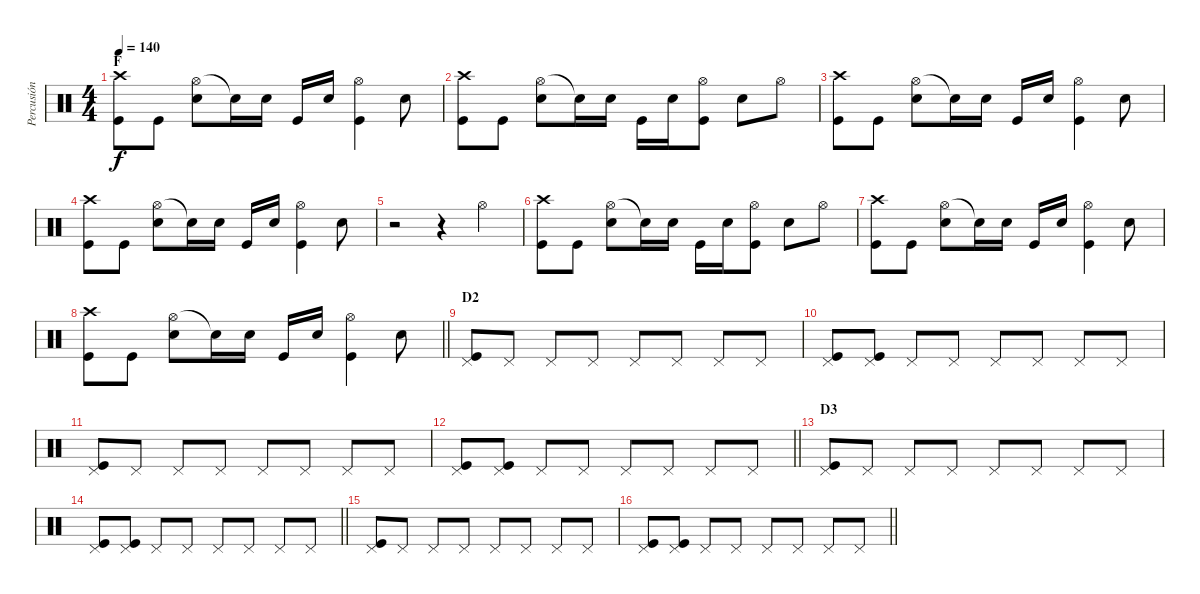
\track ("Percusión" "Percusión") {instrument percussion}
\staff {score}
\articulation defaults
\ts (4 4)
\section ("" "F")
\tempo 140
\clef neutral
\ks c
("Crash high (hit)" "Kick (hit)").8{dy f} "Kick (hit)".8 ("Hi-Hat (open)" "Electric Snare (hit)").8 "Electric Snare (hit)"{t}.16 "Electric Snare (hit)".16 "Kick (hit)".16 "Electric Snare (hit)".16 ("Hi-Hat (open)" "Kick (hit)").4 "Electric Snare (hit)".8 |
("Crash high (hit)" "Kick (hit)").8 "Kick (hit)".8 ("Hi-Hat (open)" "Electric Snare (hit)").8 "Electric Snare (hit)"{t}.16 "Electric Snare (hit)".16 "Kick (hit)".16 "Electric Snare (hit)".16 ("Hi-Hat (open)" "Kick (hit)").8 "Electric Snare (hit)".8 "Hi-Hat (open)".8 |
("Crash high (hit)" "Kick (hit)").8 "Kick (hit)".8 ("Hi-Hat (open)" "Electric Snare (hit)").8 "Electric Snare (hit)"{t}.16 "Electric Snare (hit)".16 "Kick (hit)".16 "Electric Snare (hit)".16 ("Hi-Hat (open)" "Kick (hit)").4 "Electric Snare (hit)".8 |
("Crash high (hit)" "Kick (hit)").8 "Kick (hit)".8 ("Hi-Hat (open)" "Electric Snare (hit)").8 "Electric Snare (hit)"{t}.16 "Electric Snare (hit)".16 "Kick (hit)".16 "Electric Snare (hit)".16 ("Hi-Hat (open)" "Kick (hit)").4 "Electric Snare (hit)".8 |
r.2 r.4 "Hi-Hat (open)".4 |
("Crash high (hit)" "Kick (hit)").8 "Kick (hit)".8 ("Hi-Hat (open)" "Electric Snare (hit)").8 "Electric Snare (hit)"{t}.16 "Electric Snare (hit)".16 "Kick (hit)".16 "Electric Snare (hit)".16 ("Hi-Hat (open)" "Kick (hit)").8 "Electric Snare (hit)".8 "Hi-Hat (open)".8 |
("Crash high (hit)" "Kick (hit)").8 "Kick (hit)".8 ("Hi-Hat (open)" "Electric Snare (hit)").8 "Electric Snare (hit)"{t}.16 "Electric Snare (hit)".16 "Kick (hit)".16 "Electric Snare (hit)".16 ("Hi-Hat (open)" "Kick (hit)").4 "Electric Snare (hit)".8 |
\barLineRight lightlight
("Crash high (hit)" "Kick (hit)").8 "Kick (hit)".8 ("Hi-Hat (open)" "Electric Snare (hit)").8 "Electric Snare (hit)"{t}.16 "Electric Snare (hit)".16 "Kick (hit)".16 "Electric Snare (hit)".16 ("Hi-Hat (open)" "Kick (hit)").4 "Electric Snare (hit)".8 |
\section ("" "D2")
("Pedal Hi-Hat (hit)" "Kick (hit)").8 "Pedal Hi-Hat (hit)".8 "Pedal Hi-Hat (hit)".8 "Pedal Hi-Hat (hit)".8 "Pedal Hi-Hat (hit)".8 "Pedal Hi-Hat (hit)".8 "Pedal Hi-Hat (hit)".8 "Pedal Hi-Hat (hit)".8 |
("Pedal Hi-Hat (hit)" "Kick (hit)").8 ("Pedal Hi-Hat (hit)" "Kick (hit)").8 "Pedal Hi-Hat (hit)".8 "Pedal Hi-Hat (hit)".8 "Pedal Hi-Hat (hit)".8 "Pedal Hi-Hat (hit)".8 "Pedal Hi-Hat (hit)".8 "Pedal Hi-Hat (hit)".8 |
("Pedal Hi-Hat (hit)" "Kick (hit)").8 "Pedal Hi-Hat (hit)".8 "Pedal Hi-Hat (hit)".8 "Pedal Hi-Hat (hit)".8 "Pedal Hi-Hat (hit)".8 "Pedal Hi-Hat (hit)".8 "Pedal Hi-Hat (hit)".8 "Pedal Hi-Hat (hit)".8 |
\barLineRight lightlight
("Pedal Hi-Hat (hit)" "Kick (hit)").8 ("Pedal Hi-Hat (hit)" "Kick (hit)").8 "Pedal Hi-Hat (hit)".8 "Pedal Hi-Hat (hit)".8 "Pedal Hi-Hat (hit)".8 "Pedal Hi-Hat (hit)".8 "Pedal Hi-Hat (hit)".8 "Pedal Hi-Hat (hit)".8 |
\section ("" "D3")
("Pedal Hi-Hat (hit)" "Kick (hit)").8 "Pedal Hi-Hat (hit)".8 "Pedal Hi-Hat (hit)".8 "Pedal Hi-Hat (hit)".8 "Pedal Hi-Hat (hit)".8 "Pedal Hi-Hat (hit)".8 "Pedal Hi-Hat (hit)".8 "Pedal Hi-Hat (hit)".8 |
\barLineRight lightlight
("Pedal Hi-Hat (hit)" "Kick (hit)").8 ("Pedal Hi-Hat (hit)" "Kick (hit)").8 "Pedal Hi-Hat (hit)".8 "Pedal Hi-Hat (hit)".8 "Pedal Hi-Hat (hit)".8 "Pedal Hi-Hat (hit)".8 "Pedal Hi-Hat (hit)".8 "Pedal Hi-Hat (hit)".8 |
("Pedal Hi-Hat (hit)" "Kick (hit)").8 "Pedal Hi-Hat (hit)".8 "Pedal Hi-Hat (hit)".8 "Pedal Hi-Hat (hit)".8 "Pedal Hi-Hat (hit)".8 "Pedal Hi-Hat (hit)".8 "Pedal Hi-Hat (hit)".8 "Pedal Hi-Hat (hit)".8 |
\barLineRight lightlight
("Pedal Hi-Hat (hit)" "Kick (hit)").8 ("Pedal Hi-Hat (hit)" "Kick (hit)").8 "Pedal Hi-Hat (hit)".8 "Pedal Hi-Hat (hit)".8 "Pedal Hi-Hat (hit)".8 "Pedal Hi-Hat (hit)".8 "Pedal Hi-Hat (hit)".8 "Pedal Hi-Hat (hit)".8
